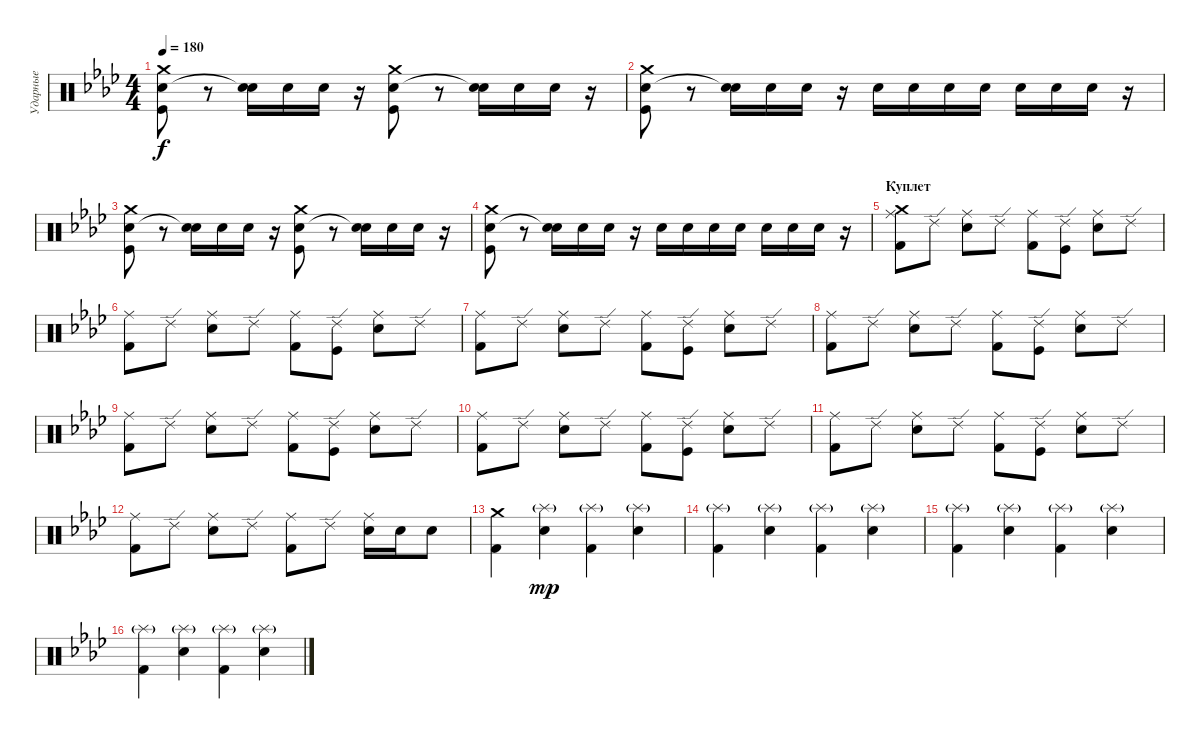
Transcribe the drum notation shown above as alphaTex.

\track ("Ударные" "Ударные") {instrument percussion}
\staff {score}
\articulation defaults
\ts (4 4)
\tempo 180
\clef neutral
\ks ab
("Kick (hit)" "Electric Snare (hit)" "Crash medium (hit)").8{dy f} r.8 ("Electric Snare (hit)" "Snare (hit)"{t}).16 "Electric Snare (hit)".16 "Electric Snare (hit)".16 r.16 ("Kick (hit)" "Electric Snare (hit)" "Crash medium (hit)").8 r.8 ("Electric Snare (hit)" "Snare (hit)"{t}).16 "Electric Snare (hit)".16 "Electric Snare (hit)".16 r.16 |
("Kick (hit)" "Electric Snare (hit)" "Crash medium (hit)").8 r.8 ("Electric Snare (hit)" "Snare (hit)"{t}).16 "Electric Snare (hit)".16 "Electric Snare (hit)".16 r.16 "Electric Snare (hit)".16 "Electric Snare (hit)".16 "Electric Snare (hit)".16 "Electric Snare (hit)".16 "Electric Snare (hit)".16 "Electric Snare (hit)".16 "Electric Snare (hit)".16 r.16 |
("Kick (hit)" "Electric Snare (hit)" "Crash medium (hit)").8 r.8 ("Electric Snare (hit)" "Snare (hit)"{t}).16 "Electric Snare (hit)".16 "Electric Snare (hit)".16 r.16 ("Kick (hit)" "Electric Snare (hit)" "Crash medium (hit)").8 r.8 ("Electric Snare (hit)" "Snare (hit)"{t}).16 "Electric Snare (hit)".16 "Electric Snare (hit)".16 r.16 |
("Kick (hit)" "Electric Snare (hit)" "Crash medium (hit)").8 r.8 ("Electric Snare (hit)" "Snare (hit)"{t}).16 "Electric Snare (hit)".16 "Electric Snare (hit)".16 r.16 "Electric Snare (hit)".16 "Electric Snare (hit)".16 "Electric Snare (hit)".16 "Electric Snare (hit)".16 "Electric Snare (hit)".16 "Electric Snare (hit)".16 "Electric Snare (hit)".16 r.16 |
\section ("" "Куплет")
("Crash medium (hit)" "Ride (middle)" "Kick (hit) 2").8 "Ride (edge) 2".8 ("Ride (middle)" "Electric Snare (hit)").8 "Ride (edge) 2".8 ("Ride (middle)" "Kick (hit) 2").8 ("Ride (edge) 2" "Kick (hit)").8 ("Ride (middle)" "Electric Snare (hit)").8 "Ride (edge) 2".8 |
("Ride (middle)" "Kick (hit) 2").8 "Ride (edge) 2".8 ("Ride (middle)" "Electric Snare (hit)").8 "Ride (edge) 2".8 ("Ride (middle)" "Kick (hit) 2").8 ("Ride (edge) 2" "Kick (hit)").8 ("Ride (middle)" "Electric Snare (hit)").8 "Ride (edge) 2".8 |
("Ride (middle)" "Kick (hit) 2").8 "Ride (edge) 2".8 ("Ride (middle)" "Electric Snare (hit)").8 "Ride (edge) 2".8 ("Ride (middle)" "Kick (hit) 2").8 ("Ride (edge) 2" "Kick (hit)").8 ("Ride (middle)" "Electric Snare (hit)").8 "Ride (edge) 2".8 |
("Ride (middle)" "Kick (hit) 2").8 "Ride (edge) 2".8 ("Ride (middle)" "Electric Snare (hit)").8 "Ride (edge) 2".8 ("Ride (middle)" "Kick (hit) 2").8 ("Ride (edge) 2" "Kick (hit)").8 ("Ride (middle)" "Electric Snare (hit)").8 "Ride (edge) 2".8 |
("Ride (middle)" "Kick (hit) 2").8 "Ride (edge) 2".8 ("Ride (middle)" "Electric Snare (hit)").8 "Ride (edge) 2".8 ("Ride (middle)" "Kick (hit) 2").8 ("Ride (edge) 2" "Kick (hit)").8 ("Ride (middle)" "Electric Snare (hit)").8 "Ride (edge) 2".8 |
("Ride (middle)" "Kick (hit) 2").8 "Ride (edge) 2".8 ("Ride (middle)" "Electric Snare (hit)").8 "Ride (edge) 2".8 ("Ride (middle)" "Kick (hit) 2").8 ("Ride (edge) 2" "Kick (hit)").8 ("Ride (middle)" "Electric Snare (hit)").8 "Ride (edge) 2".8 |
("Ride (middle)" "Kick (hit) 2").8 "Ride (edge) 2".8 ("Ride (middle)" "Electric Snare (hit)").8 "Ride (edge) 2".8 ("Ride (middle)" "Kick (hit) 2").8 ("Ride (edge) 2" "Kick (hit)").8 ("Ride (middle)" "Electric Snare (hit)").8 "Ride (edge) 2".8 |
("Ride (middle)" "Kick (hit) 2").8 "Ride (edge) 2".8 ("Ride (middle)" "Electric Snare (hit)").8 "Ride (edge) 2".8 ("Ride (middle)" "Kick (hit) 2").8 "Ride (edge) 2".8 ("Ride (middle)" "Electric Snare (hit)").16 "Electric Snare (hit)".16 "Electric Snare (hit)".8 |
("Kick (hit) 2" "Crash medium (hit)").4 ("Electric Snare (hit)" "Splash (hit)"{g}).4{dy mp} ("Kick (hit) 2" "Splash (hit)"{g}).4 ("Electric Snare (hit)" "Splash (hit)"{g}).4 |
("Kick (hit) 2" "Splash (hit)"{g}).4 ("Electric Snare (hit)" "Splash (hit)"{g}).4 ("Kick (hit) 2" "Splash (hit)"{g}).4 ("Electric Snare (hit)" "Splash (hit)"{g}).4 |
("Kick (hit) 2" "Splash (hit)"{g}).4 ("Electric Snare (hit)" "Splash (hit)"{g}).4 ("Kick (hit) 2" "Splash (hit)"{g}).4 ("Electric Snare (hit)" "Splash (hit)"{g}).4 |
("Kick (hit) 2" "Splash (hit)"{g}).4 ("Electric Snare (hit)" "Splash (hit)"{g}).4 ("Kick (hit) 2" "Splash (hit)"{g}).4 ("Electric Snare (hit)" "Splash (hit)"{g}).4
